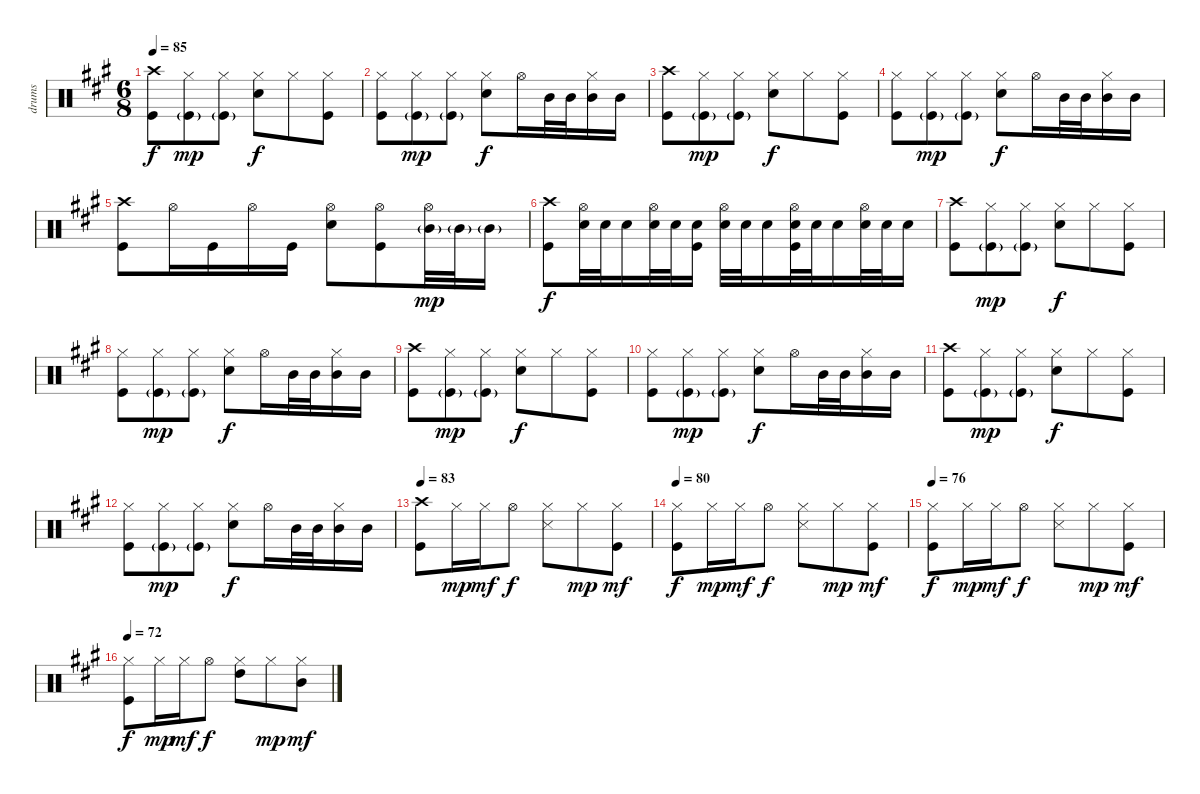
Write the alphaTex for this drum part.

\track ("drums" "drums") {instrument percussion}
\staff {score}
\articulation defaults
\ts (6 8)
\tempo 85
\clef neutral
\ks f#minor
("Crash high (hit)" "Kick (hit)").8{dy f} ("Hi-Hat (closed)" "Kick (hit)"{g}).8{dy mp} ("Hi-Hat (closed)" "Kick (hit)"{g}).8 ("Hi-Hat (closed)" "Electric Snare (hit)").8{dy f} "Hi-Hat (closed)".8 ("Hi-Hat (closed)" "Kick (hit)").8 |
("Hi-Hat (closed)" "Kick (hit)").8 ("Hi-Hat (closed)" "Kick (hit)"{g}).8{dy mp} ("Hi-Hat (closed)" "Kick (hit)"{g}).8 ("Hi-Hat (closed)" "Electric Snare (hit)").8{dy f} "Hi-Hat (open)".16 "Mid Tom (hit)".32 "Mid Tom (hit)".32 ("Hi-Hat (closed)" "Mid Tom (hit)").16 "Mid Tom (hit)".16 |
("Crash high (hit)" "Kick (hit)").8 ("Hi-Hat (closed)" "Kick (hit)"{g}).8{dy mp} ("Hi-Hat (closed)" "Kick (hit)"{g}).8 ("Hi-Hat (closed)" "Electric Snare (hit)").8{dy f} "Hi-Hat (closed)".8 ("Hi-Hat (closed)" "Kick (hit)").8 |
("Hi-Hat (closed)" "Kick (hit)").8 ("Hi-Hat (closed)" "Kick (hit)"{g}).8{dy mp} ("Hi-Hat (closed)" "Kick (hit)"{g}).8 ("Hi-Hat (closed)" "Electric Snare (hit)").8{dy f} "Hi-Hat (open)".16 "Mid Tom (hit)".32 "Mid Tom (hit)".32 ("Hi-Hat (closed)" "Mid Tom (hit)").16 "Mid Tom (hit)".16 |
("Crash high (hit)" "Kick (hit)").8 "Hi-Hat (open)".16 "Kick (hit)".16 "Hi-Hat (open)".16 "Kick (hit)".16 ("Hi-Hat (open)" "Electric Snare (hit)").8 ("Hi-Hat (open)" "Kick (hit)").8 ("Hi-Hat (open)" "Mid Tom (hit)"{g}).32{dy mp} "Mid Tom (hit)"{g}.32 "Mid Tom (hit)"{g}.16 |
("Crash high (hit)" "Kick (hit)").8{dy f} ("Hi-Hat (open)" "Electric Snare (hit)").32 "Electric Snare (hit)".32 "Electric Snare (hit)".16 ("Hi-Hat (open)" "Electric Snare (hit)").32 "Electric Snare (hit)".32 ("Electric Snare (hit)" "Kick (hit)").16 ("Hi-Hat (open)" "Electric Snare (hit)").32 "Electric Snare (hit)".32 "Electric Snare (hit)".16 ("Hi-Hat (open)" "Electric Snare (hit)" "Kick (hit)").32 "Electric Snare (hit)".32 "Electric Snare (hit)".16 ("Hi-Hat (open)" "Electric Snare (hit)").32 "Electric Snare (hit)".32 "Electric Snare (hit)".16 |
("Crash high (hit)" "Kick (hit)").8 ("Hi-Hat (closed)" "Kick (hit)"{g}).8{dy mp} ("Hi-Hat (closed)" "Kick (hit)"{g}).8 ("Hi-Hat (closed)" "Electric Snare (hit)").8{dy f} "Hi-Hat (closed)".8 ("Hi-Hat (closed)" "Kick (hit)").8 |
("Hi-Hat (closed)" "Kick (hit)").8 ("Hi-Hat (closed)" "Kick (hit)"{g}).8{dy mp} ("Hi-Hat (closed)" "Kick (hit)"{g}).8 ("Hi-Hat (closed)" "Electric Snare (hit)").8{dy f} "Hi-Hat (open)".16 "Mid Tom (hit)".32 "Mid Tom (hit)".32 ("Hi-Hat (closed)" "Mid Tom (hit)").16 "Mid Tom (hit)".16 |
("Crash high (hit)" "Kick (hit)").8 ("Hi-Hat (closed)" "Kick (hit)"{g}).8{dy mp} ("Hi-Hat (closed)" "Kick (hit)"{g}).8 ("Hi-Hat (closed)" "Electric Snare (hit)").8{dy f} "Hi-Hat (closed)".8 ("Hi-Hat (closed)" "Kick (hit)").8 |
("Hi-Hat (closed)" "Kick (hit)").8 ("Hi-Hat (closed)" "Kick (hit)"{g}).8{dy mp} ("Hi-Hat (closed)" "Kick (hit)"{g}).8 ("Hi-Hat (closed)" "Electric Snare (hit)").8{dy f} "Hi-Hat (open)".16 "Mid Tom (hit)".32 "Mid Tom (hit)".32 ("Hi-Hat (closed)" "Mid Tom (hit)").16 "Mid Tom (hit)".16 |
("Crash high (hit)" "Kick (hit)").8 ("Hi-Hat (closed)" "Kick (hit)"{g}).8{dy mp} ("Hi-Hat (closed)" "Kick (hit)"{g}).8 ("Hi-Hat (closed)" "Electric Snare (hit)").8{dy f} "Hi-Hat (closed)".8 ("Hi-Hat (closed)" "Kick (hit)").8 |
("Hi-Hat (closed)" "Kick (hit)").8 ("Hi-Hat (closed)" "Kick (hit)"{g}).8{dy mp} ("Hi-Hat (closed)" "Kick (hit)"{g}).8 ("Hi-Hat (closed)" "Electric Snare (hit)").8{dy f} "Hi-Hat (open)".16 "Mid Tom (hit)".32 "Mid Tom (hit)".32 ("Hi-Hat (closed)" "Mid Tom (hit)").16 "Mid Tom (hit)".16 |
\tempo 83
("Crash high (hit)" "Kick (hit)").8 "Hi-Hat (closed)".16{dy mp} "Hi-Hat (closed)".16{dy mf} "Hi-Hat (open)".8{dy f} ("Hi-Hat (closed)" "Snare (side stick) 3").8 "Hi-Hat (closed)".8{dy mp} ("Hi-Hat (closed)" "Kick (hit)").8{dy mf} |
\tempo 80
("Hi-Hat (closed)" "Kick (hit)").8{dy f} "Hi-Hat (closed)".16{dy mp} "Hi-Hat (closed)".16{dy mf} "Hi-Hat (open)".8{dy f} ("Hi-Hat (closed)" "Snare (side stick) 3").8 "Hi-Hat (closed)".8{dy mp} ("Hi-Hat (closed)" "Kick (hit)").8{dy mf} |
\tempo 76
("Hi-Hat (closed)" "Kick (hit)").8{dy f} "Hi-Hat (closed)".16{dy mp} "Hi-Hat (closed)".16{dy mf} "Hi-Hat (open)".8{dy f} ("Hi-Hat (closed)" "Snare (side stick) 3").8 "Hi-Hat (closed)".8{dy mp} ("Hi-Hat (closed)" "Kick (hit)").8{dy mf} |
\tempo 72
("Hi-Hat (closed)" "Kick (hit)").8{dy f} "Hi-Hat (closed)".16{dy mp} "Hi-Hat (closed)".16{dy mf} "Hi-Hat (open)".8{dy f} ("Hi-Hat (closed)" "High Tom (hit)").8 "Hi-Hat (closed)".8{dy mp} ("Hi-Hat (closed)" "Mid Tom (hit)").8{dy mf}
